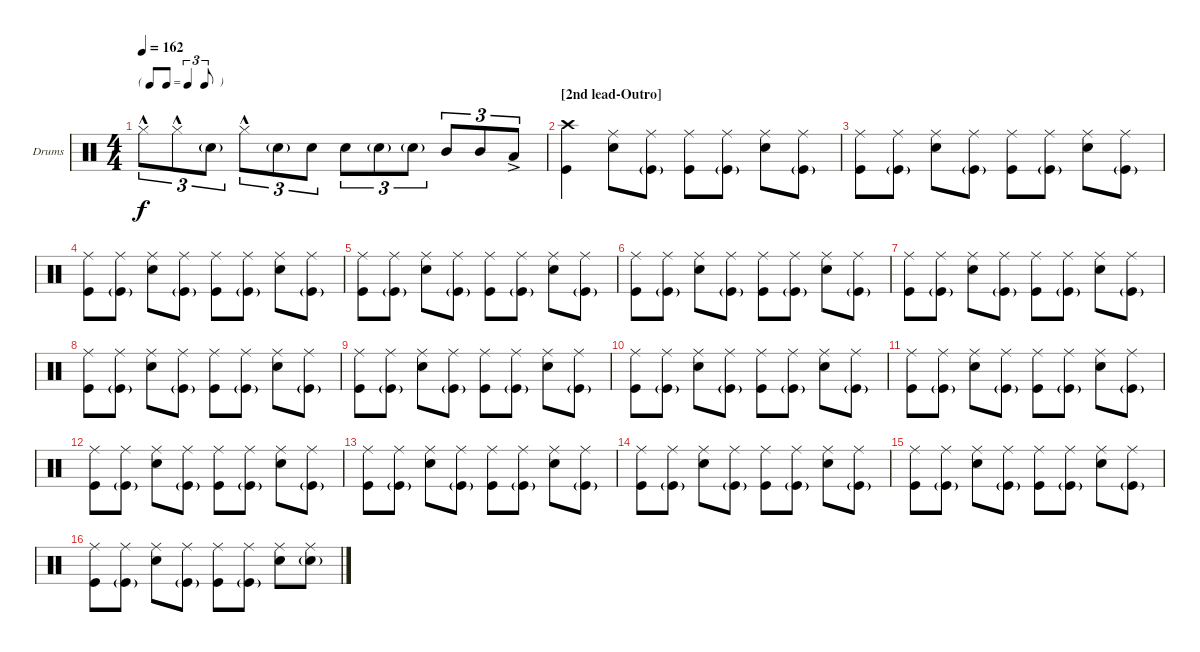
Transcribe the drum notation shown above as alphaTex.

\bracketExtendMode groupsimilarinstruments
\firstSystemTrackNameOrientation horizontal
\otherSystemsTrackNameOrientation horizontal
\track ("Drumkit" "Drums") {instrument percussion}
\staff {score}
\articulation defaults
\ts (4 4)
\tf triplet8th
\tempo 162
\clef neutral
\ks c "Hi-Hat (closed)"{hac}.8{tu (3 2) dy f} "Hi-Hat (closed)"{hac}.8{tu (3 2)} "Snare (hit) 2"{g}.8{tu (3 2)} "Hi-Hat (closed)"{hac}.8{tu (3 2)} "Snare (hit) 2"{g}.8{tu (3 2)} "Snare (hit) 2".8{tu (3 2)} "Snare (hit) 2".8{tu (3 2)} "Snare (hit) 2"{g}.8{tu (3 2)} "Snare (hit) 2"{g}.8{tu (3 2)} "Mid Tom (hit)".8{tu (3 2)} "Mid Tom (hit)".8{tu (3 2)} "Low Tom (hit)"{ac}.8{tu (3 2)}
|
\section ("" "[2nd lead-Outro]")
("Kick (hit)" "Crash high (hit)").4 ("Snare (hit) 2" "Ride (middle)").8 ("Kick (hit)"{g} "Ride (middle)").8 ("Kick (hit)" "Ride (middle)").8 ("Kick (hit)"{g} "Ride (middle)").8 ("Snare (hit) 2" "Ride (middle)").8 ("Kick (hit)"{g} "Ride (middle)").8 |
("Kick (hit)" "Ride (middle)").8 ("Kick (hit)"{g} "Ride (middle)").8 ("Snare (hit) 2" "Ride (middle)").8 ("Kick (hit)"{g} "Ride (middle)").8 ("Kick (hit)" "Ride (middle)").8 ("Kick (hit)"{g} "Ride (middle)").8 ("Snare (hit) 2" "Ride (middle)").8 ("Kick (hit)"{g} "Ride (middle)").8 |
("Kick (hit)" "Ride (middle)").8 ("Kick (hit)"{g} "Ride (middle)").8 ("Snare (hit) 2" "Ride (middle)").8 ("Kick (hit)"{g} "Ride (middle)").8 ("Kick (hit)" "Ride (middle)").8 ("Kick (hit)"{g} "Ride (middle)").8 ("Snare (hit) 2" "Ride (middle)").8 ("Kick (hit)"{g} "Ride (middle)").8 |
("Kick (hit)" "Ride (middle)").8 ("Kick (hit)"{g} "Ride (middle)").8 ("Snare (hit) 2" "Ride (middle)").8 ("Kick (hit)"{g} "Ride (middle)").8 ("Kick (hit)" "Ride (middle)").8 ("Kick (hit)"{g} "Ride (middle)").8 ("Snare (hit) 2" "Ride (middle)").8 ("Kick (hit)"{g} "Ride (middle)").8 |
("Kick (hit)" "Ride (middle)").8 ("Kick (hit)"{g} "Ride (middle)").8 ("Snare (hit) 2" "Ride (middle)").8 ("Kick (hit)"{g} "Ride (middle)").8 ("Kick (hit)" "Ride (middle)").8 ("Kick (hit)"{g} "Ride (middle)").8 ("Snare (hit) 2" "Ride (middle)").8 ("Kick (hit)"{g} "Ride (middle)").8 |
("Kick (hit)" "Ride (middle)").8 ("Kick (hit)"{g} "Ride (middle)").8 ("Snare (hit) 2" "Ride (middle)").8 ("Kick (hit)"{g} "Ride (middle)").8 ("Kick (hit)" "Ride (middle)").8 ("Kick (hit)"{g} "Ride (middle)").8 ("Snare (hit) 2" "Ride (middle)").8 ("Kick (hit)"{g} "Ride (middle)").8 |
("Kick (hit)" "Ride (middle)").8 ("Kick (hit)"{g} "Ride (middle)").8 ("Snare (hit) 2" "Ride (middle)").8 ("Kick (hit)"{g} "Ride (middle)").8 ("Kick (hit)" "Ride (middle)").8 ("Kick (hit)"{g} "Ride (middle)").8 ("Snare (hit) 2" "Ride (middle)").8 ("Kick (hit)"{g} "Ride (middle)").8 |
("Kick (hit)" "Ride (middle)").8 ("Kick (hit)"{g} "Ride (middle)").8 ("Snare (hit) 2" "Ride (middle)").8 ("Kick (hit)"{g} "Ride (middle)").8 ("Kick (hit)" "Ride (middle)").8 ("Kick (hit)"{g} "Ride (middle)").8 ("Snare (hit) 2" "Ride (middle)").8 ("Kick (hit)"{g} "Ride (middle)").8 |
("Kick (hit)" "Ride (middle)").8 ("Kick (hit)"{g} "Ride (middle)").8 ("Snare (hit) 2" "Ride (middle)").8 ("Kick (hit)"{g} "Ride (middle)").8 ("Kick (hit)" "Ride (middle)").8 ("Kick (hit)"{g} "Ride (middle)").8 ("Snare (hit) 2" "Ride (middle)").8 ("Kick (hit)"{g} "Ride (middle)").8 |
("Kick (hit)" "Ride (middle)").8 ("Kick (hit)"{g} "Ride (middle)").8 ("Snare (hit) 2" "Ride (middle)").8 ("Kick (hit)"{g} "Ride (middle)").8 ("Kick (hit)" "Ride (middle)").8 ("Kick (hit)"{g} "Ride (middle)").8 ("Snare (hit) 2" "Ride (middle)").8 ("Kick (hit)"{g} "Ride (middle)").8 |
("Kick (hit)" "Ride (middle)").8 ("Kick (hit)"{g} "Ride (middle)").8 ("Snare (hit) 2" "Ride (middle)").8 ("Kick (hit)"{g} "Ride (middle)").8 ("Kick (hit)" "Ride (middle)").8 ("Kick (hit)"{g} "Ride (middle)").8 ("Snare (hit) 2" "Ride (middle)").8 ("Kick (hit)"{g} "Ride (middle)").8 |
("Kick (hit)" "Ride (middle)").8 ("Kick (hit)"{g} "Ride (middle)").8 ("Snare (hit) 2" "Ride (middle)").8 ("Kick (hit)"{g} "Ride (middle)").8 ("Kick (hit)" "Ride (middle)").8 ("Kick (hit)"{g} "Ride (middle)").8 ("Snare (hit) 2" "Ride (middle)").8 ("Kick (hit)"{g} "Ride (middle)").8 |
("Kick (hit)" "Ride (middle)").8 ("Kick (hit)"{g} "Ride (middle)").8 ("Snare (hit) 2" "Ride (middle)").8 ("Kick (hit)"{g} "Ride (middle)").8 ("Kick (hit)" "Ride (middle)").8 ("Kick (hit)"{g} "Ride (middle)").8 ("Snare (hit) 2" "Ride (middle)").8 ("Kick (hit)"{g} "Ride (middle)").8 |
("Kick (hit)" "Ride (middle)").8 ("Kick (hit)"{g} "Ride (middle)").8 ("Snare (hit) 2" "Ride (middle)").8 ("Kick (hit)"{g} "Ride (middle)").8 ("Kick (hit)" "Ride (middle)").8 ("Kick (hit)"{g} "Ride (middle)").8 ("Snare (hit) 2" "Ride (middle)").8 ("Kick (hit)"{g} "Ride (middle)").8 |
("Kick (hit)" "Ride (middle)").8 ("Kick (hit)"{g} "Ride (middle)").8 ("Snare (hit) 2" "Ride (middle)").8 ("Kick (hit)"{g} "Ride (middle)").8 ("Kick (hit)" "Ride (middle)").8 ("Kick (hit)"{g} "Ride (middle)").8 ("Snare (hit) 2" "Ride (middle)").8 ("Ride (middle)" "Snare (hit) 2"{g}).8
